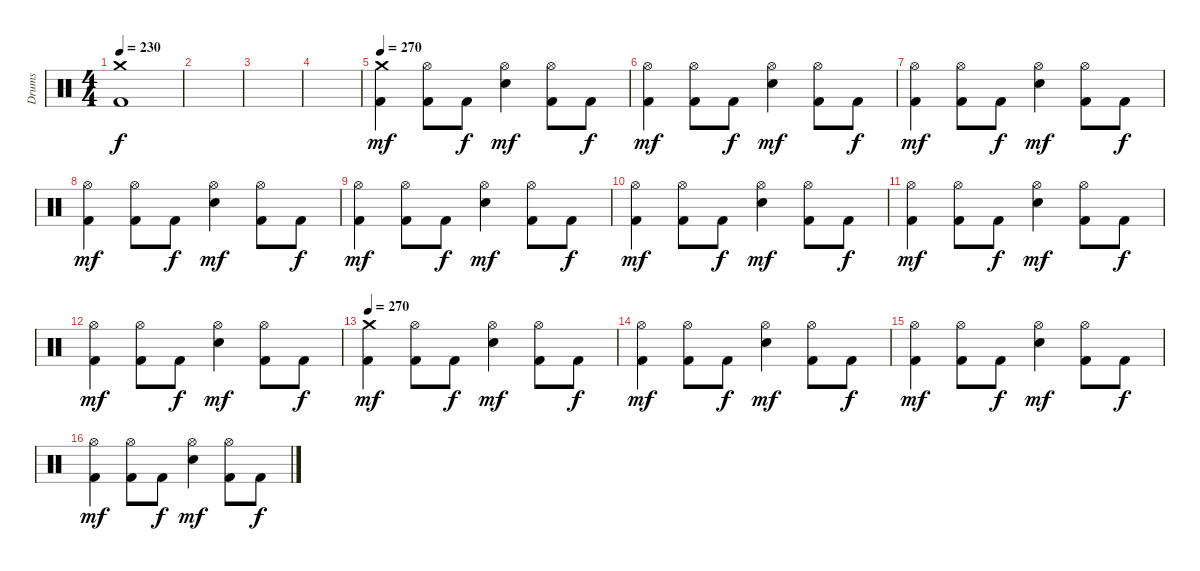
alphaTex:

\track ("Drums" "Drums") {instrument percussion}
\staff {score}
\articulation defaults
\ts (4 4)
\tempo 230
\clef neutral
\ks c
("Crash medium (hit)" "Kick (hit) 2").1{dy f} |
|
|
|
\tempo 270
("Crash medium (hit)" "Kick (hit) 2").4{dy mf} ("Hi-Hat (open)" "Kick (hit) 2").8 "Kick (hit) 2".8{dy f} ("Hi-Hat (open)" "Snare (hit) 2").4{dy mf} ("Hi-Hat (open)" "Kick (hit) 2").8 "Kick (hit) 2".8{dy f} |
("Hi-Hat (open)" "Kick (hit) 2").4{dy mf} ("Hi-Hat (open)" "Kick (hit) 2").8 "Kick (hit) 2".8{dy f} ("Hi-Hat (open)" "Snare (hit) 2").4{dy mf} ("Hi-Hat (open)" "Kick (hit) 2").8 "Kick (hit) 2".8{dy f} |
("Hi-Hat (open)" "Kick (hit) 2").4{dy mf} ("Hi-Hat (open)" "Kick (hit) 2").8 "Kick (hit) 2".8{dy f} ("Hi-Hat (open)" "Snare (hit) 2").4{dy mf} ("Hi-Hat (open)" "Kick (hit) 2").8 "Kick (hit) 2".8{dy f} |
("Hi-Hat (open)" "Kick (hit) 2").4{dy mf} ("Hi-Hat (open)" "Kick (hit) 2").8 "Kick (hit) 2".8{dy f} ("Hi-Hat (open)" "Snare (hit) 2").4{dy mf} ("Hi-Hat (open)" "Kick (hit) 2").8 "Kick (hit) 2".8{dy f} |
("Hi-Hat (open)" "Kick (hit) 2").4{dy mf} ("Hi-Hat (open)" "Kick (hit) 2").8 "Kick (hit) 2".8{dy f} ("Hi-Hat (open)" "Snare (hit) 2").4{dy mf} ("Hi-Hat (open)" "Kick (hit) 2").8 "Kick (hit) 2".8{dy f} |
("Hi-Hat (open)" "Kick (hit) 2").4{dy mf} ("Hi-Hat (open)" "Kick (hit) 2").8 "Kick (hit) 2".8{dy f} ("Hi-Hat (open)" "Snare (hit) 2").4{dy mf} ("Hi-Hat (open)" "Kick (hit) 2").8 "Kick (hit) 2".8{dy f} |
("Hi-Hat (open)" "Kick (hit) 2").4{dy mf} ("Hi-Hat (open)" "Kick (hit) 2").8 "Kick (hit) 2".8{dy f} ("Hi-Hat (open)" "Snare (hit) 2").4{dy mf} ("Hi-Hat (open)" "Kick (hit) 2").8 "Kick (hit) 2".8{dy f} |
("Hi-Hat (open)" "Kick (hit) 2").4{dy mf} ("Hi-Hat (open)" "Kick (hit) 2").8 "Kick (hit) 2".8{dy f} ("Hi-Hat (open)" "Snare (hit) 2").4{dy mf} ("Hi-Hat (open)" "Kick (hit) 2").8 "Kick (hit) 2".8{dy f} |
\tempo 270
("Crash medium (hit)" "Kick (hit) 2").4{dy mf} ("Hi-Hat (open)" "Kick (hit) 2").8 "Kick (hit) 2".8{dy f} ("Hi-Hat (open)" "Snare (hit) 2").4{dy mf} ("Hi-Hat (open)" "Kick (hit) 2").8 "Kick (hit) 2".8{dy f} |
("Hi-Hat (open)" "Kick (hit) 2").4{dy mf} ("Hi-Hat (open)" "Kick (hit) 2").8 "Kick (hit) 2".8{dy f} ("Hi-Hat (open)" "Snare (hit) 2").4{dy mf} ("Hi-Hat (open)" "Kick (hit) 2").8 "Kick (hit) 2".8{dy f} |
("Hi-Hat (open)" "Kick (hit) 2").4{dy mf} ("Hi-Hat (open)" "Kick (hit) 2").8 "Kick (hit) 2".8{dy f} ("Hi-Hat (open)" "Snare (hit) 2").4{dy mf} ("Hi-Hat (open)" "Kick (hit) 2").8 "Kick (hit) 2".8{dy f} |
("Hi-Hat (open)" "Kick (hit) 2").4{dy mf} ("Hi-Hat (open)" "Kick (hit) 2").8 "Kick (hit) 2".8{dy f} ("Hi-Hat (open)" "Snare (hit) 2").4{dy mf} ("Hi-Hat (open)" "Kick (hit) 2").8 "Kick (hit) 2".8{dy f}
